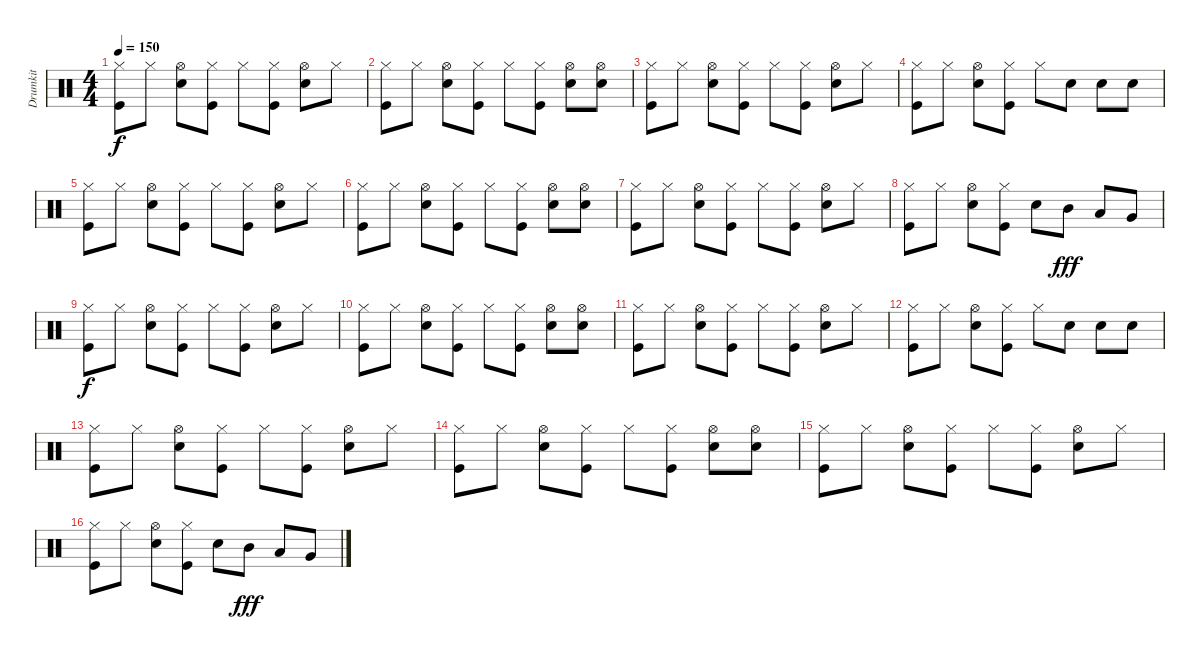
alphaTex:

\track ("Drumkit" "Drumkit") {instrument percussion}
\staff {score}
\articulation defaults
\ts (4 4)
\tempo 150
\clef neutral
\ks c
("Kick (hit)" "Hi-Hat (closed)").8{dy f} "Hi-Hat (closed)".8 ("Snare (hit) 2" "Hi-Hat (open)").8 ("Kick (hit)" "Hi-Hat (closed)").8 "Hi-Hat (closed)".8 ("Kick (hit)" "Hi-Hat (closed)").8 ("Snare (hit) 2" "Hi-Hat (open)").8 "Hi-Hat (closed)".8 |
("Kick (hit)" "Hi-Hat (closed)").8 "Hi-Hat (closed)".8 ("Snare (hit) 2" "Hi-Hat (open)").8 ("Kick (hit)" "Hi-Hat (closed)").8 "Hi-Hat (closed)".8 ("Kick (hit)" "Hi-Hat (closed)").8 ("Snare (hit) 2" "Hi-Hat (open)").8 ("Hi-Hat (open)" "Snare (hit) 2").8 |
("Kick (hit)" "Hi-Hat (closed)").8 "Hi-Hat (closed)".8 ("Snare (hit) 2" "Hi-Hat (open)").8 ("Kick (hit)" "Hi-Hat (closed)").8 "Hi-Hat (closed)".8 ("Kick (hit)" "Hi-Hat (closed)").8 ("Snare (hit) 2" "Hi-Hat (open)").8 "Hi-Hat (closed)".8 |
("Kick (hit)" "Hi-Hat (closed)").8 "Hi-Hat (closed)".8 ("Snare (hit) 2" "Hi-Hat (open)").8 ("Kick (hit)" "Hi-Hat (closed)").8 "Hi-Hat (closed)".8 "Snare (hit) 2".8 "Snare (hit) 2".8 "Snare (hit) 2".8 |
("Kick (hit)" "Hi-Hat (closed)").8 "Hi-Hat (closed)".8 ("Snare (hit) 2" "Hi-Hat (open)").8 ("Kick (hit)" "Hi-Hat (closed)").8 "Hi-Hat (closed)".8 ("Kick (hit)" "Hi-Hat (closed)").8 ("Snare (hit) 2" "Hi-Hat (open)").8 "Hi-Hat (closed)".8 |
("Kick (hit)" "Hi-Hat (closed)").8 "Hi-Hat (closed)".8 ("Snare (hit) 2" "Hi-Hat (open)").8 ("Kick (hit)" "Hi-Hat (closed)").8 "Hi-Hat (closed)".8 ("Kick (hit)" "Hi-Hat (closed)").8 ("Snare (hit) 2" "Hi-Hat (open)").8 ("Hi-Hat (open)" "Snare (hit) 2").8 |
("Kick (hit)" "Hi-Hat (closed)").8 "Hi-Hat (closed)".8 ("Snare (hit) 2" "Hi-Hat (open)").8 ("Kick (hit)" "Hi-Hat (closed)").8 "Hi-Hat (closed)".8 ("Kick (hit)" "Hi-Hat (closed)").8 ("Snare (hit) 2" "Hi-Hat (open)").8 "Hi-Hat (closed)".8 |
("Kick (hit)" "Hi-Hat (closed)").8 "Hi-Hat (closed)".8 ("Snare (hit) 2" "Hi-Hat (open)").8 ("Kick (hit)" "Hi-Hat (closed)").8 "Snare (hit) 2".8 "Mid Tom (hit)".8{dy fff} "Low Tom (hit)".8 "Very Low Tom (hit)".8 |
("Kick (hit)" "Hi-Hat (closed)").8{dy f} "Hi-Hat (closed)".8 ("Snare (hit) 2" "Hi-Hat (open)").8 ("Kick (hit)" "Hi-Hat (closed)").8 "Hi-Hat (closed)".8 ("Kick (hit)" "Hi-Hat (closed)").8 ("Snare (hit) 2" "Hi-Hat (open)").8 "Hi-Hat (closed)".8 |
("Kick (hit)" "Hi-Hat (closed)").8 "Hi-Hat (closed)".8 ("Snare (hit) 2" "Hi-Hat (open)").8 ("Kick (hit)" "Hi-Hat (closed)").8 "Hi-Hat (closed)".8 ("Kick (hit)" "Hi-Hat (closed)").8 ("Snare (hit) 2" "Hi-Hat (open)").8 ("Hi-Hat (open)" "Snare (hit) 2").8 |
("Kick (hit)" "Hi-Hat (closed)").8 "Hi-Hat (closed)".8 ("Snare (hit) 2" "Hi-Hat (open)").8 ("Kick (hit)" "Hi-Hat (closed)").8 "Hi-Hat (closed)".8 ("Kick (hit)" "Hi-Hat (closed)").8 ("Snare (hit) 2" "Hi-Hat (open)").8 "Hi-Hat (closed)".8 |
("Kick (hit)" "Hi-Hat (closed)").8 "Hi-Hat (closed)".8 ("Snare (hit) 2" "Hi-Hat (open)").8 ("Kick (hit)" "Hi-Hat (closed)").8 "Hi-Hat (closed)".8 "Snare (hit) 2".8 "Snare (hit) 2".8 "Snare (hit) 2".8 |
("Kick (hit)" "Hi-Hat (closed)").8 "Hi-Hat (closed)".8 ("Snare (hit) 2" "Hi-Hat (open)").8 ("Kick (hit)" "Hi-Hat (closed)").8 "Hi-Hat (closed)".8 ("Kick (hit)" "Hi-Hat (closed)").8 ("Snare (hit) 2" "Hi-Hat (open)").8 "Hi-Hat (closed)".8 |
("Kick (hit)" "Hi-Hat (closed)").8 "Hi-Hat (closed)".8 ("Snare (hit) 2" "Hi-Hat (open)").8 ("Kick (hit)" "Hi-Hat (closed)").8 "Hi-Hat (closed)".8 ("Kick (hit)" "Hi-Hat (closed)").8 ("Snare (hit) 2" "Hi-Hat (open)").8 ("Hi-Hat (open)" "Snare (hit) 2").8 |
("Kick (hit)" "Hi-Hat (closed)").8 "Hi-Hat (closed)".8 ("Snare (hit) 2" "Hi-Hat (open)").8 ("Kick (hit)" "Hi-Hat (closed)").8 "Hi-Hat (closed)".8 ("Kick (hit)" "Hi-Hat (closed)").8 ("Snare (hit) 2" "Hi-Hat (open)").8 "Hi-Hat (closed)".8 |
("Kick (hit)" "Hi-Hat (closed)").8 "Hi-Hat (closed)".8 ("Snare (hit) 2" "Hi-Hat (open)").8 ("Kick (hit)" "Hi-Hat (closed)").8 "Snare (hit) 2".8 "Mid Tom (hit)".8{dy fff} "Low Tom (hit)".8 "Very Low Tom (hit)".8
